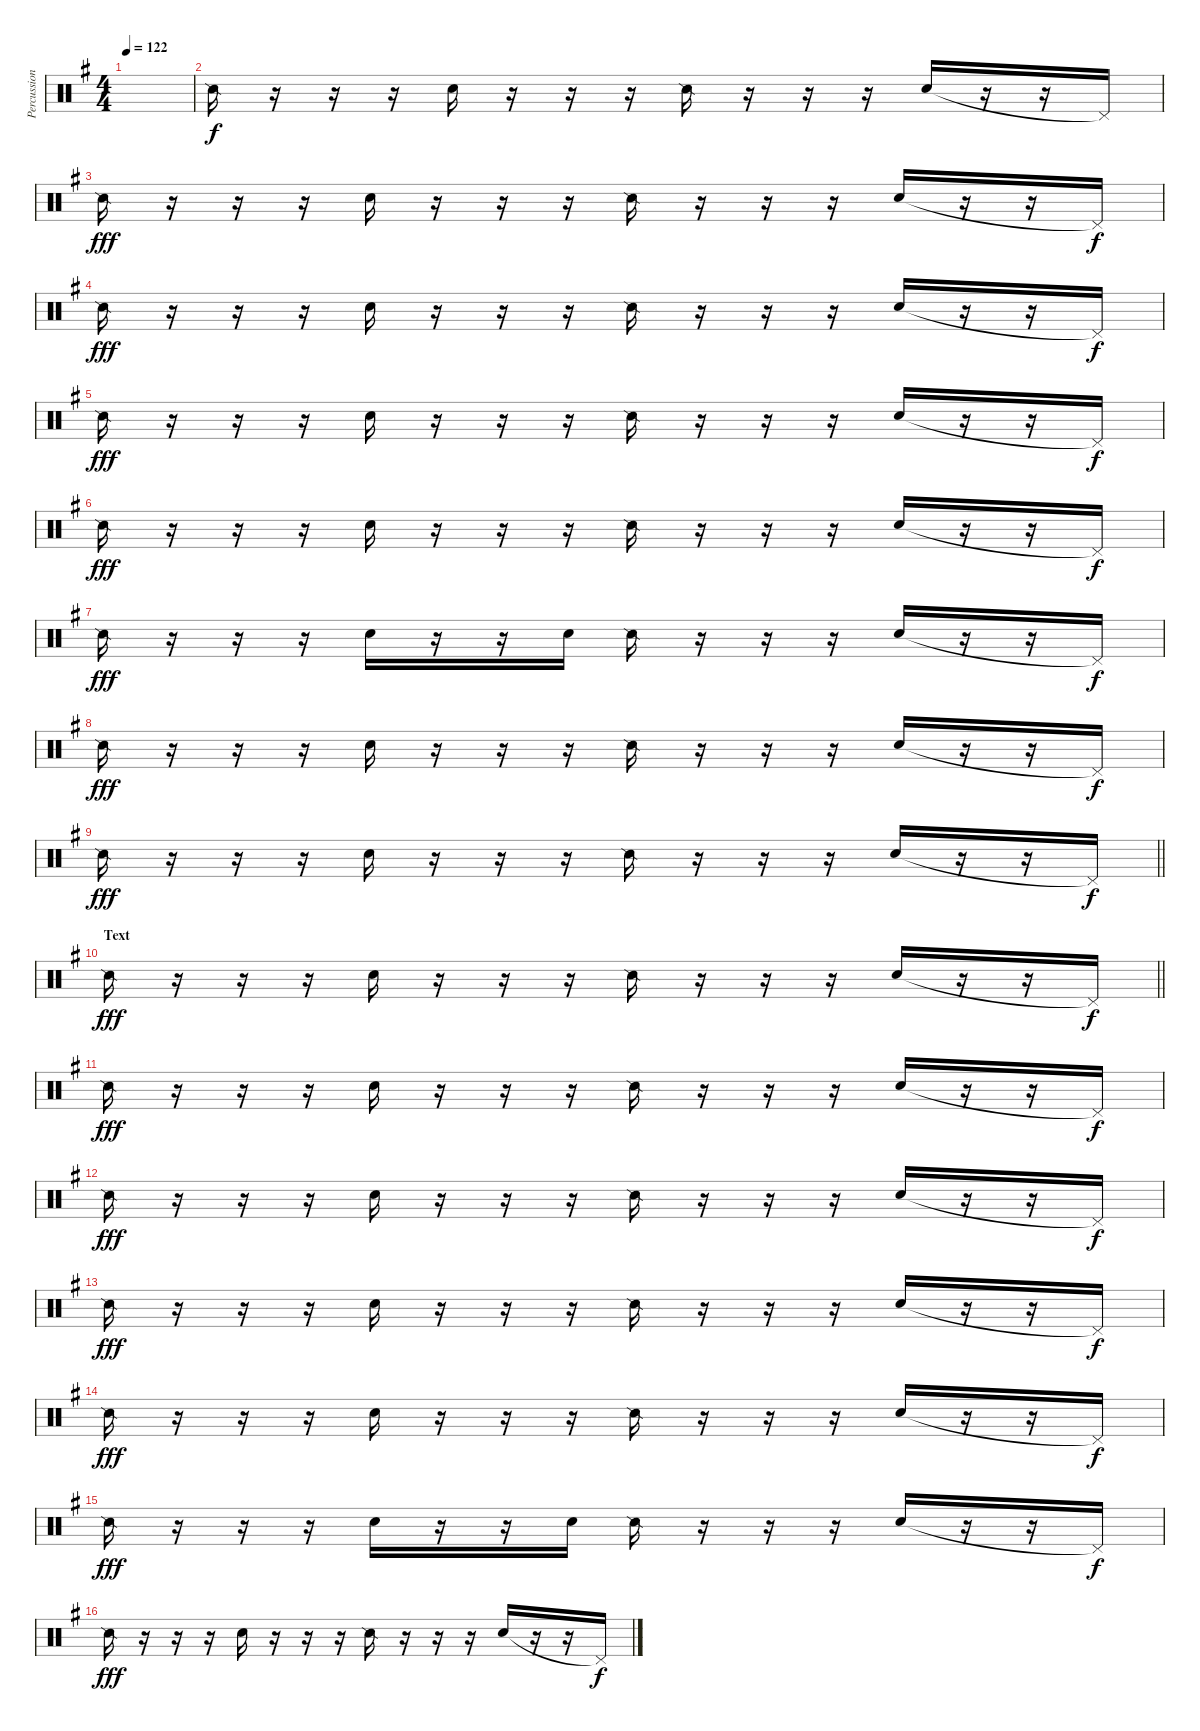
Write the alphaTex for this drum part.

\track ("Percussion" "Percussion") {instrument percussion}
\staff {score}
\articulation defaults
\ts (4 4)
\tempo 122
\clef neutral
\ks g
|
"Snare (side stick) 2".16 r.16 r.16 r.16 "Hand Clap (hit)".16 r.16 r.16 r.16 "Snare (side stick) 2".16 r.16 r.16 r.16 "Hand Clap (hit)".16 r.16 r.16 "Pedal Hi-Hat (hit)"{t}.16{dy f} |
"Snare (side stick) 2".16{dy fff} r.16 r.16 r.16 "Hand Clap (hit)".16 r.16 r.16 r.16 "Snare (side stick) 2".16 r.16 r.16 r.16 "Hand Clap (hit)".16 r.16 r.16 "Pedal Hi-Hat (hit)"{t}.16{dy f} |
"Snare (side stick) 2".16{dy fff} r.16 r.16 r.16 "Hand Clap (hit)".16 r.16 r.16 r.16 "Snare (side stick) 2".16 r.16 r.16 r.16 "Hand Clap (hit)".16 r.16 r.16 "Pedal Hi-Hat (hit)"{t}.16{dy f} |
"Snare (side stick) 2".16{dy fff} r.16 r.16 r.16 "Hand Clap (hit)".16 r.16 r.16 r.16 "Snare (side stick) 2".16 r.16 r.16 r.16 "Hand Clap (hit)".16 r.16 r.16 "Pedal Hi-Hat (hit)"{t}.16{dy f} |
"Snare (side stick) 2".16{dy fff} r.16 r.16 r.16 "Hand Clap (hit)".16 r.16 r.16 r.16 "Snare (side stick) 2".16 r.16 r.16 r.16 "Hand Clap (hit)".16 r.16 r.16 "Pedal Hi-Hat (hit)"{t}.16{dy f} |
"Snare (side stick) 2".16{dy fff} r.16 r.16 r.16 "Hand Clap (hit)".16 r.16 r.16 "Hand Clap (hit)".16 "Snare (side stick) 2".16 r.16 r.16 r.16 "Hand Clap (hit)".16 r.16 r.16 "Pedal Hi-Hat (hit)"{t}.16{dy f} |
"Snare (side stick) 2".16{dy fff} r.16 r.16 r.16 "Hand Clap (hit)".16 r.16 r.16 r.16 "Snare (side stick) 2".16 r.16 r.16 r.16 "Hand Clap (hit)".16 r.16 r.16 "Pedal Hi-Hat (hit)"{t}.16{dy f} |
\barLineRight lightlight "Snare (side stick) 2".16{dy fff}
r.16 r.16 r.16 "Hand Clap (hit)".16 r.16 r.16 r.16 "Snare (side stick) 2".16 r.16 r.16 r.16 "Hand Clap (hit)".16 r.16 r.16 "Pedal Hi-Hat (hit)"{t}.16{dy f} |
\section ("" "Text")
\barLineRight lightlight "Snare (side stick) 2".16{dy fff}
r.16 r.16 r.16 "Hand Clap (hit)".16 r.16 r.16 r.16 "Snare (side stick) 2".16 r.16 r.16 r.16 "Hand Clap (hit)".16 r.16 r.16 "Pedal Hi-Hat (hit)"{t}.16{dy f} |
\section ("" "")
"Snare (side stick) 2".16{dy fff} r.16 r.16 r.16 "Hand Clap (hit)".16 r.16 r.16 r.16 "Snare (side stick) 2".16 r.16 r.16 r.16 "Hand Clap (hit)".16 r.16 r.16 "Pedal Hi-Hat (hit)"{t}.16{dy f} |
"Snare (side stick) 2".16{dy fff} r.16 r.16 r.16 "Hand Clap (hit)".16 r.16 r.16 r.16 "Snare (side stick) 2".16 r.16 r.16 r.16 "Hand Clap (hit)".16 r.16 r.16 "Pedal Hi-Hat (hit)"{t}.16{dy f} |
"Snare (side stick) 2".16{dy fff} r.16 r.16 r.16 "Hand Clap (hit)".16 r.16 r.16 r.16 "Snare (side stick) 2".16 r.16 r.16 r.16 "Hand Clap (hit)".16 r.16 r.16 "Pedal Hi-Hat (hit)"{t}.16{dy f} |
"Snare (side stick) 2".16{dy fff} r.16 r.16 r.16 "Hand Clap (hit)".16 r.16 r.16 r.16 "Snare (side stick) 2".16 r.16 r.16 r.16 "Hand Clap (hit)".16 r.16 r.16 "Pedal Hi-Hat (hit)"{t}.16{dy f} |
"Snare (side stick) 2".16{dy fff} r.16 r.16 r.16 "Hand Clap (hit)".16 r.16 r.16 "Hand Clap (hit)".16 "Snare (side stick) 2".16 r.16 r.16 r.16 "Hand Clap (hit)".16 r.16 r.16 "Pedal Hi-Hat (hit)"{t}.16{dy f} |
"Snare (side stick) 2".16{dy fff} r.16 r.16 r.16 "Hand Clap (hit)".16 r.16 r.16 r.16 "Snare (side stick) 2".16 r.16 r.16 r.16 "Hand Clap (hit)".16 r.16 r.16 "Pedal Hi-Hat (hit)"{t}.16{dy f}
